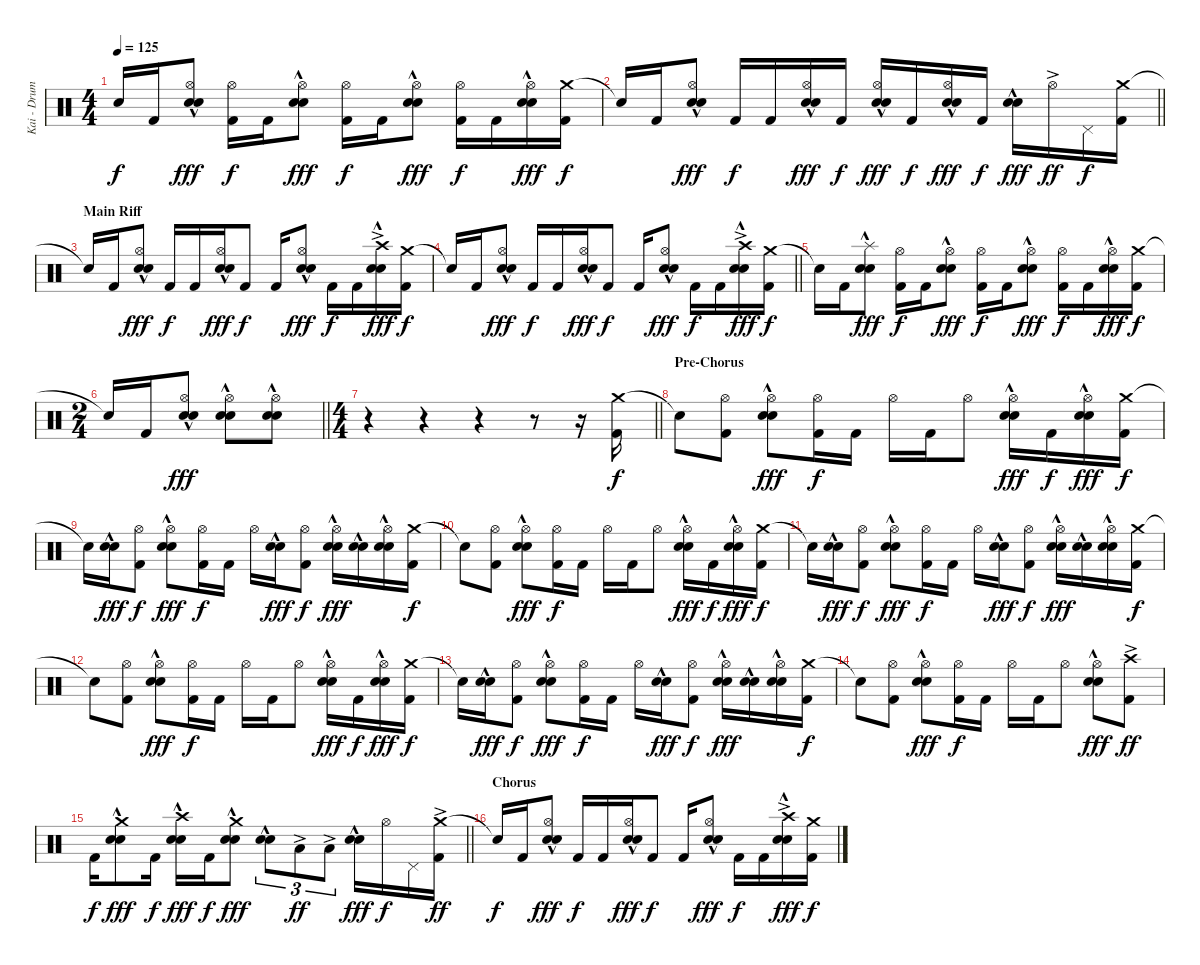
\track ("Kai - Drums" "Kai - Drum") {instrument percussion}
\staff {score}
\articulation defaults
\ts (4 4)
\tempo 125
\clef neutral
\ks c "Snare (hit)"{t}.16{dy f} "Kick (hit) 2".16
("Hi-Hat (open)" "Electric Snare (hit)"{hac} "Snare (hit) 2").8{dy fff} ("Hi-Hat (open)" "Kick (hit) 2").16{dy f} "Kick (hit) 2".16 ("Hi-Hat (open)" "Electric Snare (hit)"{hac} "Snare (hit) 2").8{dy fff} ("Hi-Hat (open)" "Kick (hit) 2").16{dy f} "Kick (hit) 2".16 ("Hi-Hat (open)" "Electric Snare (hit)"{hac} "Snare (hit) 2").8{dy fff} ("Hi-Hat (open)" "Kick (hit) 2").16{dy f} "Kick (hit) 2".16 ("Hi-Hat (open)" "Electric Snare (hit)"{hac} "Snare (hit) 2").16{dy fff} ("Crash medium (hit)" "Kick (hit) 2").16{dy f} |
\barLineRight lightlight "Snare (hit)"{t}.16 "Kick (hit) 2".16
("Hi-Hat (open)" "Electric Snare (hit)"{hac} "Snare (hit) 2").8{dy fff} "Kick (hit) 2".16{dy f} "Kick (hit) 2".16 ("Hi-Hat (open)" "Electric Snare (hit)"{hac} "Snare (hit) 2").16{dy fff} "Kick (hit) 2".16{dy f} ("Hi-Hat (open)" "Electric Snare (hit)"{hac} "Snare (hit) 2").16{dy fff} "Kick (hit) 2".16{dy f} ("Hi-Hat (open)" "Electric Snare (hit)"{hac} "Snare (hit) 2").16{dy fff} "Kick (hit) 2".16{dy f} ("Electric Snare (hit)"{hac} "Snare (hit) 2").16{dy fff} "Hi-Hat (open)"{ac}.16{dy ff} "Pedal Hi-Hat (hit)".16{dy f} ("Crash medium (hit)" "Kick (hit) 2").16 |
\section ("" "Main Riff")
"Snare (hit)"{t}.16 "Kick (hit) 2".16 ("Hi-Hat (open)" "Electric Snare (hit)"{hac} "Snare (hit) 2").8{dy fff} "Kick (hit) 2".16{dy f} "Kick (hit) 2".16 ("Hi-Hat (open)" "Electric Snare (hit)"{hac} "Snare (hit) 2").16{dy fff} "Kick (hit) 2".8{dy f} "Kick (hit) 2".16 ("Hi-Hat (open)" "Electric Snare (hit)"{hac} "Snare (hit) 2").8{dy fff} "Kick (hit) 2".16{dy f} "Kick (hit) 2".16 ("Crash high (hit)"{ac} "Electric Snare (hit)"{hac} "Snare (hit) 2").16{dy fff} ("Crash medium (hit)" "Kick (hit) 2").16{dy f} |
\barLineRight lightlight "Snare (hit)"{t}.16 "Kick (hit) 2".16
("Hi-Hat (open)" "Electric Snare (hit)"{hac} "Snare (hit) 2").8{dy fff} "Kick (hit) 2".16{dy f} "Kick (hit) 2".16 ("Hi-Hat (open)" "Electric Snare (hit)"{hac} "Snare (hit) 2").16{dy fff} "Kick (hit) 2".8{dy f} "Kick (hit) 2".16 ("Hi-Hat (open)" "Electric Snare (hit)"{hac} "Snare (hit) 2").8{dy fff} "Kick (hit) 2".16{dy f} "Kick (hit) 2".16 ("Crash high (hit)"{ac} "Electric Snare (hit)"{hac} "Snare (hit) 2").16{dy fff} ("Crash medium (hit)" "Kick (hit) 2").16{dy f} |
"Snare (hit)"{t}.16 "Kick (hit) 2".16 ("Splash (hit)"{hac} "Electric Snare (hit)"{hac} "Snare (hit) 2").8{dy fff} ("Hi-Hat (open)" "Kick (hit) 2").16{dy f} "Kick (hit) 2".16 ("Hi-Hat (open)" "Electric Snare (hit)"{hac} "Snare (hit) 2").8{dy fff} ("Hi-Hat (open)" "Kick (hit) 2").16{dy f} "Kick (hit) 2".16 ("Hi-Hat (open)" "Electric Snare (hit)"{hac} "Snare (hit) 2").8{dy fff} ("Hi-Hat (open)" "Kick (hit) 2").16{dy f} "Kick (hit) 2".16 ("Hi-Hat (open)" "Electric Snare (hit)"{hac} "Snare (hit) 2").16{dy fff} ("Crash medium (hit)" "Kick (hit) 2").16{dy f} |
\ts (2 4)
\barLineRight lightlight "Snare (hit)"{t}.16 "Kick (hit) 2".16
("Hi-Hat (open)" "Electric Snare (hit)"{hac} "Snare (hit) 2").8{dy fff} ("Hi-Hat (open)" "Electric Snare (hit)"{hac} "Snare (hit) 2").8 ("Hi-Hat (open)" "Electric Snare (hit)"{hac} "Snare (hit) 2").8 |
\ts (4 4)
\barLineRight lightlight
r.4 r.4 r.4 r.8 r.16 ("Crash medium (hit)" "Kick (hit) 2").16{dy f} |
\section ("" "Pre-Chorus")
"Snare (hit)"{t}.8 ("Hi-Hat (open)" "Kick (hit) 2").8 ("Hi-Hat (open)" "Electric Snare (hit)"{hac} "Snare (hit) 2").8{dy fff} ("Hi-Hat (open)" "Kick (hit) 2").16{dy f} "Kick (hit) 2".16 "Hi-Hat (open)".16 "Kick (hit) 2".16 "Hi-Hat (open)".8 ("Hi-Hat (open)" "Electric Snare (hit)"{hac} "Snare (hit) 2").16{dy fff} "Kick (hit) 2".16{dy f} ("Hi-Hat (open)" "Electric Snare (hit)"{hac} "Snare (hit) 2").16{dy fff} ("Crash medium (hit)" "Kick (hit) 2").16{dy f} |
"Snare (hit)"{t}.16 ("Electric Snare (hit)"{hac} "Snare (hit) 2").16{dy fff} ("Hi-Hat (open)" "Kick (hit) 2").8{dy f} ("Hi-Hat (open)" "Electric Snare (hit)"{hac} "Snare (hit) 2").8{dy fff} ("Hi-Hat (open)" "Kick (hit) 2").16{dy f} "Kick (hit) 2".16 "Hi-Hat (open)".16 ("Electric Snare (hit)"{hac} "Snare (hit) 2").16{dy fff} ("Hi-Hat (open)" "Kick (hit) 2").8{dy f} ("Hi-Hat (open)" "Electric Snare (hit)"{hac} "Snare (hit) 2").16{dy fff} ("Electric Snare (hit)"{hac} "Snare (hit) 2").16 ("Hi-Hat (open)" "Electric Snare (hit)"{hac} "Snare (hit) 2").16 ("Crash medium (hit)" "Kick (hit) 2").16{dy f} |
"Snare (hit)"{t}.8 ("Hi-Hat (open)" "Kick (hit) 2").8 ("Hi-Hat (open)" "Electric Snare (hit)"{hac} "Snare (hit) 2").8{dy fff} ("Hi-Hat (open)" "Kick (hit) 2").16{dy f} "Kick (hit) 2".16 "Hi-Hat (open)".16 "Kick (hit) 2".16 "Hi-Hat (open)".8 ("Hi-Hat (open)" "Electric Snare (hit)"{hac} "Snare (hit) 2").16{dy fff} "Kick (hit) 2".16{dy f} ("Hi-Hat (open)" "Electric Snare (hit)"{hac} "Snare (hit) 2").16{dy fff} ("Crash medium (hit)" "Kick (hit) 2").16{dy f} |
"Snare (hit)"{t}.16 ("Electric Snare (hit)"{hac} "Snare (hit) 2").16{dy fff} ("Hi-Hat (open)" "Kick (hit) 2").8{dy f} ("Hi-Hat (open)" "Electric Snare (hit)"{hac} "Snare (hit) 2").8{dy fff} ("Hi-Hat (open)" "Kick (hit) 2").16{dy f} "Kick (hit) 2".16 "Hi-Hat (open)".16 ("Electric Snare (hit)"{hac} "Snare (hit) 2").16{dy fff} ("Hi-Hat (open)" "Kick (hit) 2").8{dy f} ("Hi-Hat (open)" "Electric Snare (hit)"{hac} "Snare (hit) 2").16{dy fff} ("Electric Snare (hit)"{hac} "Snare (hit) 2").16 ("Hi-Hat (open)" "Electric Snare (hit)"{hac} "Snare (hit) 2").16 ("Crash medium (hit)" "Kick (hit) 2").16{dy f} |
"Snare (hit)"{t}.8 ("Hi-Hat (open)" "Kick (hit) 2").8 ("Hi-Hat (open)" "Electric Snare (hit)"{hac} "Snare (hit) 2").8{dy fff} ("Hi-Hat (open)" "Kick (hit) 2").16{dy f} "Kick (hit) 2".16 "Hi-Hat (open)".16 "Kick (hit) 2".16 "Hi-Hat (open)".8 ("Hi-Hat (open)" "Electric Snare (hit)"{hac} "Snare (hit) 2").16{dy fff} "Kick (hit) 2".16{dy f} ("Hi-Hat (open)" "Electric Snare (hit)"{hac} "Snare (hit) 2").16{dy fff} ("Crash medium (hit)" "Kick (hit) 2").16{dy f} |
"Snare (hit)"{t}.16 ("Electric Snare (hit)"{hac} "Snare (hit) 2").16{dy fff} ("Hi-Hat (open)" "Kick (hit) 2").8{dy f} ("Hi-Hat (open)" "Electric Snare (hit)"{hac} "Snare (hit) 2").8{dy fff} ("Hi-Hat (open)" "Kick (hit) 2").16{dy f} "Kick (hit) 2".16 "Hi-Hat (open)".16 ("Electric Snare (hit)"{hac} "Snare (hit) 2").16{dy fff} ("Hi-Hat (open)" "Kick (hit) 2").8{dy f} ("Hi-Hat (open)" "Electric Snare (hit)"{hac} "Snare (hit) 2").16{dy fff} ("Electric Snare (hit)"{hac} "Snare (hit) 2").16 ("Hi-Hat (open)" "Electric Snare (hit)"{hac} "Snare (hit) 2").16 ("Crash medium (hit)" "Kick (hit) 2").16{dy f} |
"Snare (hit)"{t}.8 ("Hi-Hat (open)" "Kick (hit) 2").8 ("Hi-Hat (open)" "Electric Snare (hit)"{hac} "Snare (hit) 2").8{dy fff} ("Hi-Hat (open)" "Kick (hit) 2").16{dy f} "Kick (hit) 2".16 "Hi-Hat (open)".16 "Kick (hit) 2".16 "Hi-Hat (open)".8 ("Hi-Hat (open)" "Electric Snare (hit)"{hac} "Snare (hit) 2").8{dy fff} ("Crash high (hit)"{ac} "Kick (hit) 2").8{dy ff} |
\barLineRight lightlight "Kick (hit) 2".16{dy f}
("Crash medium (hit)" "Electric Snare (hit)"{hac} "Snare (hit) 2").8{dy fff} "Kick (hit) 2".16{dy f} ("Crash high (hit)" "Electric Snare (hit)"{hac} "Snare (hit) 2").16{dy fff} "Kick (hit) 2".16{dy f} ("Crash medium (hit)" "Electric Snare (hit)"{hac} "Snare (hit) 2").8{dy fff} ("Electric Snare (hit)"{hac} "Snare (hit) 2").8{tu (3 2)} "Low Tom (hit)"{ac}.8{tu (3 2) dy ff} "Low Tom (hit)"{ac}.8{tu (3 2)} ("Electric Snare (hit)"{hac} "Snare (hit) 2").16{dy fff} "Hi-Hat (open)".16{dy f} "Pedal Hi-Hat (hit)".16 ("Crash medium (hit)"{ac} "Kick (hit) 2").16{dy ff} |
\section ("" "Chorus")
"Snare (hit)"{t}.16{dy f} "Kick (hit) 2".16 ("Hi-Hat (open)" "Electric Snare (hit)"{hac} "Snare (hit) 2").8{dy fff} "Kick (hit) 2".16{dy f} "Kick (hit) 2".16 ("Hi-Hat (open)" "Electric Snare (hit)"{hac} "Snare (hit) 2").16{dy fff} "Kick (hit) 2".8{dy f} "Kick (hit) 2".16 ("Hi-Hat (open)" "Electric Snare (hit)"{hac} "Snare (hit) 2").8{dy fff} "Kick (hit) 2".16{dy f} "Kick (hit) 2".16 ("Crash high (hit)"{ac} "Electric Snare (hit)"{hac} "Snare (hit) 2").16{dy fff} ("Crash medium (hit)" "Kick (hit) 2").16{dy f}
